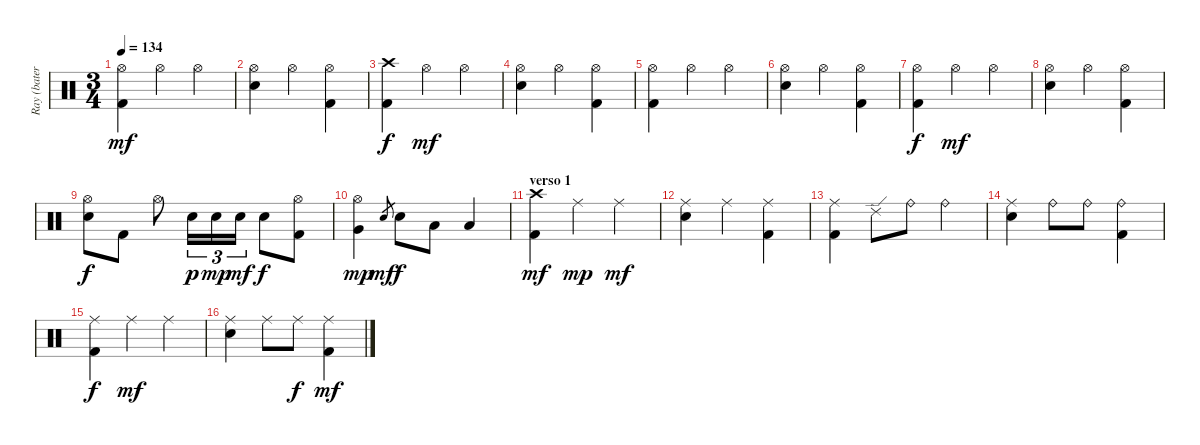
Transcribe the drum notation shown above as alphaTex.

\track ("Ray (batería)" "Ray (bater") {instrument percussion}
\staff {score}
\articulation defaults
\ts (3 4)
\tempo 134
\clef neutral
\ks c
("Hi-Hat (open)" "Kick (hit) 2").4{dy mf} "Hi-Hat (open)".4 "Hi-Hat (open)".4 |
("Hi-Hat (open)" "Snare (hit) 2").4 "Hi-Hat (open)".4 ("Hi-Hat (open)" "Kick (hit) 2").4 |
("Crash high (hit)" "Kick (hit) 2").4{dy f} "Hi-Hat (open)".4{dy mf} "Hi-Hat (open)".4 |
("Hi-Hat (open)" "Snare (hit) 2").4 "Hi-Hat (open)".4 ("Hi-Hat (open)" "Kick (hit) 2").4 |
("Hi-Hat (open)" "Kick (hit) 2").4 "Hi-Hat (open)".4 "Hi-Hat (open)".4 |
("Hi-Hat (open)" "Snare (hit) 2").4 "Hi-Hat (open)".4 ("Hi-Hat (open)" "Kick (hit) 2").4 |
("Hi-Hat (open)" "Kick (hit) 2").4{dy f} "Hi-Hat (open)".4{dy mf} "Hi-Hat (open)".4 |
("Hi-Hat (open)" "Snare (hit) 2").4 "Hi-Hat (open)".4 ("Hi-Hat (open)" "Kick (hit) 2").4 |
("Hi-Hat (open)" "Snare (hit) 2").8{dy f} "Kick (hit) 2".8 "Hi-Hat (open)".8 "Snare (hit) 2".16{tu (3 2) dy p} "Snare (hit) 2".16{tu (3 2) dy mp} "Snare (hit) 2".16{tu (3 2) dy mf} "Snare (hit) 2".8{dy f} ("Hi-Hat (open)" "Kick (hit) 2").8 |
("Hi-Hat (open)" "Very Low Tom (hit)").4{dy mp} "Snare (hit) 2".8{gr dy mf} "Snare (hit) 2".8{dy f} "Low Floor Tom (hit)".8 "Low Floor Tom (hit)".4 |
\section ("" "verso 1")
("Crash high (hit)" "Kick (hit) 2").4{dy mf} "Ride (middle)".4{dy mp} "Ride (middle)".4{dy mf} |
("Ride (middle)" "Snare (hit) 2").4 "Ride (middle)".4 ("Ride (middle)" "Kick (hit) 2").4 |
("Ride (middle)" "Kick (hit) 2").4 "Ride (edge) 2".8 "Ride (bell)".8 "Ride (bell)".4 |
("Ride (middle)" "Snare (hit) 2").4 "Ride (bell)".8 "Ride (bell)".8 ("Ride (bell)" "Kick (hit) 2").4 |
("Ride (middle)" "Kick (hit) 2").4{dy f} "Ride (middle)".4{dy mf} "Ride (middle)".4 |
("Ride (middle)" "Snare (hit) 2").4 "Ride (middle)".8 "Ride (middle)".8{dy f} ("Ride (middle)" "Kick (hit) 2").4{dy mf}
